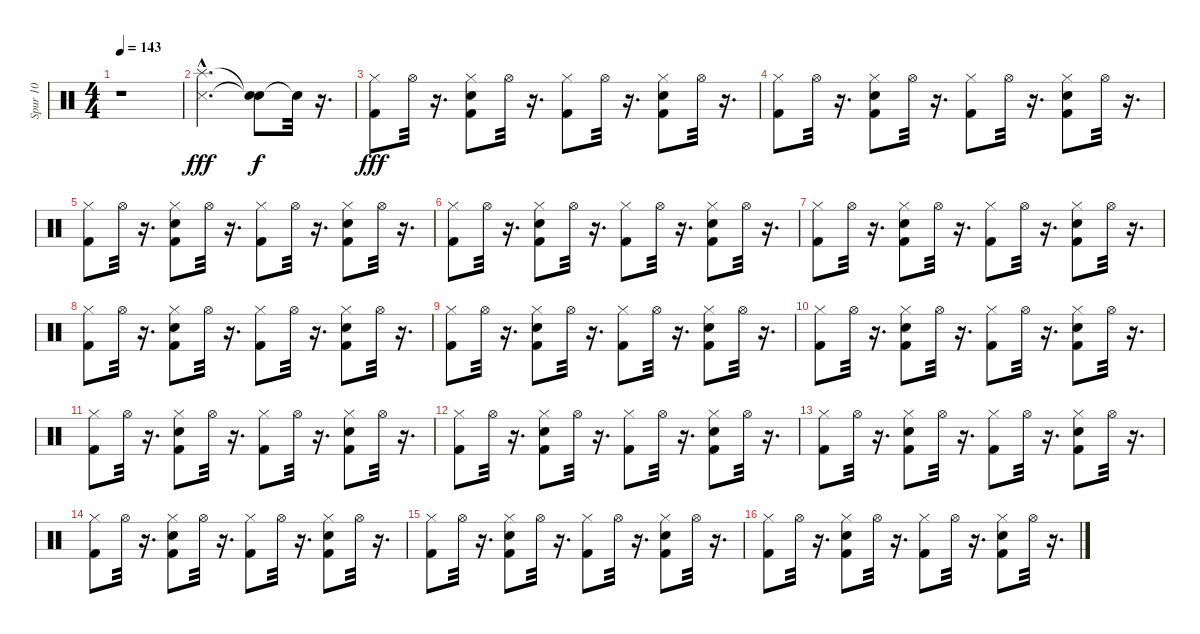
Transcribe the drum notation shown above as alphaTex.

\track ("Spur 10" "Spur 10") {instrument percussion}
\staff {score}
\articulation defaults
\ts (4 4)
\tempo 143
\clef neutral
\ks c
r.1{dy f} |
("Splash (hit)"{hac} "Snare (side stick) 3"{hac}).2{d dy fff} ("Snare (hit)"{t} "Snare (hit)"{t}).8{dy f} "Snare (hit)"{t}.32 r.16{d} |
("Hi-Hat (closed)" "Kick (hit) 2").8{dy fff} "Hi-Hat (open)".32 r.16{d} ("Hi-Hat (closed)" "Electric Snare (hit)" "Kick (hit) 2").8 "Hi-Hat (open)".32 r.16{d} ("Hi-Hat (closed)" "Kick (hit) 2").8 "Hi-Hat (open)".32 r.16{d} ("Hi-Hat (closed)" "Electric Snare (hit)" "Kick (hit) 2").8 "Hi-Hat (open)".32 r.16{d} |
("Hi-Hat (closed)" "Kick (hit) 2").8 "Hi-Hat (open)".32 r.16{d} ("Hi-Hat (closed)" "Electric Snare (hit)" "Kick (hit) 2").8 "Hi-Hat (open)".32 r.16{d} ("Hi-Hat (closed)" "Kick (hit) 2").8 "Hi-Hat (open)".32 r.16{d} ("Hi-Hat (closed)" "Electric Snare (hit)" "Kick (hit) 2").8 "Hi-Hat (open)".32 r.16{d} |
("Hi-Hat (closed)" "Kick (hit) 2").8 "Hi-Hat (open)".32 r.16{d} ("Hi-Hat (closed)" "Electric Snare (hit)" "Kick (hit) 2").8 "Hi-Hat (open)".32 r.16{d} ("Hi-Hat (closed)" "Kick (hit) 2").8 "Hi-Hat (open)".32 r.16{d} ("Hi-Hat (closed)" "Electric Snare (hit)" "Kick (hit) 2").8 "Hi-Hat (open)".32 r.16{d} |
("Hi-Hat (closed)" "Kick (hit) 2").8 "Hi-Hat (open)".32 r.16{d} ("Hi-Hat (closed)" "Electric Snare (hit)" "Kick (hit) 2").8 "Hi-Hat (open)".32 r.16{d} ("Hi-Hat (closed)" "Kick (hit) 2").8 "Hi-Hat (open)".32 r.16{d} ("Hi-Hat (closed)" "Electric Snare (hit)" "Kick (hit) 2").8 "Hi-Hat (open)".32 r.16{d} |
("Hi-Hat (closed)" "Kick (hit) 2").8 "Hi-Hat (open)".32 r.16{d} ("Hi-Hat (closed)" "Electric Snare (hit)" "Kick (hit) 2").8 "Hi-Hat (open)".32 r.16{d} ("Hi-Hat (closed)" "Kick (hit) 2").8 "Hi-Hat (open)".32 r.16{d} ("Hi-Hat (closed)" "Electric Snare (hit)" "Kick (hit) 2").8 "Hi-Hat (open)".32 r.16{d} |
("Hi-Hat (closed)" "Kick (hit) 2").8 "Hi-Hat (open)".32 r.16{d} ("Hi-Hat (closed)" "Electric Snare (hit)" "Kick (hit) 2").8 "Hi-Hat (open)".32 r.16{d} ("Hi-Hat (closed)" "Kick (hit) 2").8 "Hi-Hat (open)".32 r.16{d} ("Hi-Hat (closed)" "Electric Snare (hit)" "Kick (hit) 2").8 "Hi-Hat (open)".32 r.16{d} |
("Hi-Hat (closed)" "Kick (hit) 2").8 "Hi-Hat (open)".32 r.16{d} ("Hi-Hat (closed)" "Electric Snare (hit)" "Kick (hit) 2").8 "Hi-Hat (open)".32 r.16{d} ("Hi-Hat (closed)" "Kick (hit) 2").8 "Hi-Hat (open)".32 r.16{d} ("Hi-Hat (closed)" "Electric Snare (hit)" "Kick (hit) 2").8 "Hi-Hat (open)".32 r.16{d} |
("Hi-Hat (closed)" "Kick (hit) 2").8 "Hi-Hat (open)".32 r.16{d} ("Hi-Hat (closed)" "Electric Snare (hit)" "Kick (hit) 2").8 "Hi-Hat (open)".32 r.16{d} ("Hi-Hat (closed)" "Kick (hit) 2").8 "Hi-Hat (open)".32 r.16{d} ("Hi-Hat (closed)" "Electric Snare (hit)" "Kick (hit) 2").8 "Hi-Hat (open)".32 r.16{d} |
("Hi-Hat (closed)" "Kick (hit) 2").8 "Hi-Hat (open)".32 r.16{d} ("Hi-Hat (closed)" "Electric Snare (hit)" "Kick (hit) 2").8 "Hi-Hat (open)".32 r.16{d} ("Hi-Hat (closed)" "Kick (hit) 2").8 "Hi-Hat (open)".32 r.16{d} ("Hi-Hat (closed)" "Electric Snare (hit)" "Kick (hit) 2").8 "Hi-Hat (open)".32 r.16{d} |
("Hi-Hat (closed)" "Kick (hit) 2").8 "Hi-Hat (open)".32 r.16{d} ("Hi-Hat (closed)" "Electric Snare (hit)" "Kick (hit) 2").8 "Hi-Hat (open)".32 r.16{d} ("Hi-Hat (closed)" "Kick (hit) 2").8 "Hi-Hat (open)".32 r.16{d} ("Hi-Hat (closed)" "Electric Snare (hit)" "Kick (hit) 2").8 "Hi-Hat (open)".32 r.16{d} |
("Hi-Hat (closed)" "Kick (hit) 2").8 "Hi-Hat (open)".32 r.16{d} ("Hi-Hat (closed)" "Electric Snare (hit)" "Kick (hit) 2").8 "Hi-Hat (open)".32 r.16{d} ("Hi-Hat (closed)" "Kick (hit) 2").8 "Hi-Hat (open)".32 r.16{d} ("Hi-Hat (closed)" "Electric Snare (hit)" "Kick (hit) 2").8 "Hi-Hat (open)".32 r.16{d} |
("Hi-Hat (closed)" "Kick (hit) 2").8 "Hi-Hat (open)".32 r.16{d} ("Hi-Hat (closed)" "Electric Snare (hit)" "Kick (hit) 2").8 "Hi-Hat (open)".32 r.16{d} ("Hi-Hat (closed)" "Kick (hit) 2").8 "Hi-Hat (open)".32 r.16{d} ("Hi-Hat (closed)" "Electric Snare (hit)" "Kick (hit) 2").8 "Hi-Hat (open)".32 r.16{d} |
("Hi-Hat (closed)" "Kick (hit) 2").8 "Hi-Hat (open)".32 r.16{d} ("Hi-Hat (closed)" "Electric Snare (hit)" "Kick (hit) 2").8 "Hi-Hat (open)".32 r.16{d} ("Hi-Hat (closed)" "Kick (hit) 2").8 "Hi-Hat (open)".32 r.16{d} ("Hi-Hat (closed)" "Electric Snare (hit)" "Kick (hit) 2").8 "Hi-Hat (open)".32 r.16{d} |
("Hi-Hat (closed)" "Kick (hit) 2").8 "Hi-Hat (open)".32 r.16{d} ("Hi-Hat (closed)" "Electric Snare (hit)" "Kick (hit) 2").8 "Hi-Hat (open)".32 r.16{d} ("Hi-Hat (closed)" "Kick (hit) 2").8 "Hi-Hat (open)".32 r.16{d} ("Hi-Hat (closed)" "Electric Snare (hit)" "Kick (hit) 2").8 "Hi-Hat (open)".32 r.16{d}
